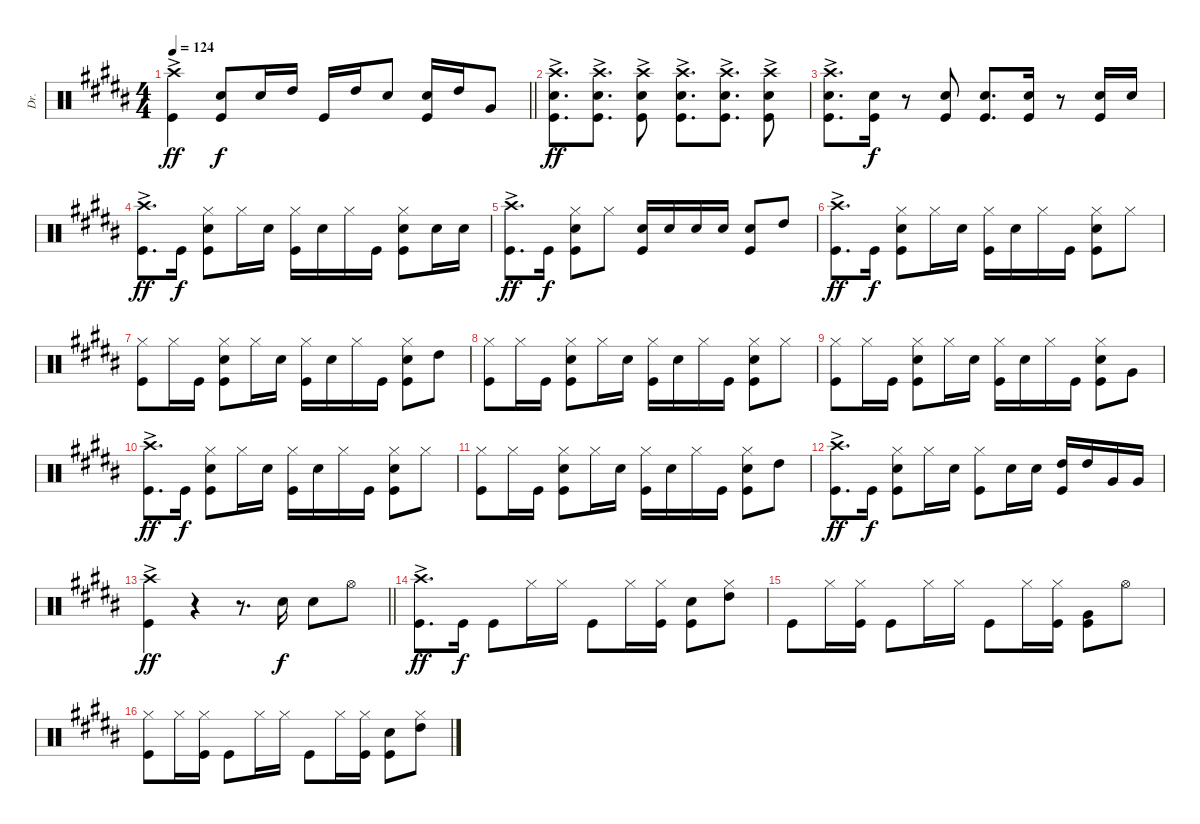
\track ("Dr." "Dr.") {instrument percussion}
\staff {score}
\articulation defaults
\ts (4 4)
\tempo 124
\clef neutral
\barLineRight lightlight
\ks b
("Crash high (hit)"{ac} "Kick (hit)"{ac}).4{dy ff} ("Snare (hit) 2" "Kick (hit)").8{dy f} "Snare (hit) 2".16 "High Tom (hit)".16 "Kick (hit)".16 "High Tom (hit)".16 "Snare (hit) 2".8 ("Kick (hit)" "Snare (hit) 2").16 "High Tom (hit)".16 "Very Low Tom (hit)".8 |
("Crash high (hit)"{ac} "Snare (hit) 2"{ac} "Kick (hit)"{ac}).8{d dy ff} ("Crash high (hit)"{ac} "Snare (hit) 2"{ac} "Kick (hit)"{ac}).8{d} ("Crash high (hit)"{ac} "Snare (hit) 2"{ac} "Kick (hit)"{ac}).8 ("Crash high (hit)"{ac} "Snare (hit) 2"{ac} "Kick (hit)"{ac}).8{d} ("Crash high (hit)"{ac} "Snare (hit) 2"{ac} "Kick (hit)"{ac}).8{d} ("Crash high (hit)"{ac} "Snare (hit) 2"{ac} "Kick (hit)"{ac}).8 |
("Crash high (hit)"{ac} "Snare (hit) 2"{ac} "Kick (hit)"{ac}).8{d} ("Snare (hit) 2" "Kick (hit)").16{dy f} r.8 ("Kick (hit)" "Snare (hit) 2").8 ("Snare (hit) 2" "Kick (hit)").8{d} ("Kick (hit)" "Snare (hit) 2").16 r.8 ("Snare (hit) 2" "Kick (hit)").16 "Snare (hit) 2".16 |
("Crash high (hit)"{ac} "Kick (hit)"{ac}).8{d dy ff} "Kick (hit)".16{dy f} ("Kick (hit)" "Snare (hit) 2" "Hi-Hat (closed)").8 "Hi-Hat (closed)".16 "Snare (hit) 2".16 ("Kick (hit)" "Hi-Hat (closed)").16 "Snare (hit) 2".16 "Hi-Hat (closed)".16 "Kick (hit)".16 ("Hi-Hat (closed)" "Kick (hit)" "Snare (hit) 2").8 "Snare (hit) 2".16 "Snare (hit) 2".16 |
("Crash high (hit)"{ac} "Kick (hit)"{ac}).8{d dy ff} "Kick (hit)".16{dy f} ("Kick (hit)" "Snare (hit) 2" "Hi-Hat (closed)").8 "Hi-Hat (closed)".8 ("Snare (hit) 2" "Kick (hit)").16 "Snare (hit) 2".16 "Snare (hit) 2".16 "Snare (hit) 2".16 ("Snare (hit) 2" "Kick (hit)").8 "High Tom (hit)".8 |
("Crash high (hit)"{ac} "Kick (hit)"{ac}).8{d dy ff} "Kick (hit)".16{dy f} ("Kick (hit)" "Snare (hit) 2" "Hi-Hat (closed)").8 "Hi-Hat (closed)".16 "Snare (hit) 2".16 ("Kick (hit)" "Hi-Hat (closed)").16 "Snare (hit) 2".16 "Hi-Hat (closed)".16 "Kick (hit)".16 ("Hi-Hat (closed)" "Kick (hit)" "Snare (hit) 2").8 "Hi-Hat (closed)".8 |
("Hi-Hat (closed)" "Kick (hit)").8 "Hi-Hat (closed)".16 "Kick (hit)".16 ("Hi-Hat (closed)" "Kick (hit)" "Snare (hit) 2").8 "Hi-Hat (closed)".16 "Snare (hit) 2".16 ("Kick (hit)" "Hi-Hat (closed)").16 "Snare (hit) 2".16 "Hi-Hat (closed)".16 "Kick (hit)".16 ("Hi-Hat (closed)" "Kick (hit)" "Snare (hit) 2").8 "High Tom (hit)".8 |
("Hi-Hat (closed)" "Kick (hit)").8 "Hi-Hat (closed)".16 "Kick (hit)".16 ("Hi-Hat (closed)" "Kick (hit)" "Snare (hit) 2").8 "Hi-Hat (closed)".16 "Snare (hit) 2".16 ("Kick (hit)" "Hi-Hat (closed)").16 "Snare (hit) 2".16 "Hi-Hat (closed)".16 "Kick (hit)".16 ("Hi-Hat (closed)" "Kick (hit)" "Snare (hit) 2").8 "Hi-Hat (closed)".8 |
("Hi-Hat (closed)" "Kick (hit)").8 "Hi-Hat (closed)".16 "Kick (hit)".16 ("Hi-Hat (closed)" "Kick (hit)" "Snare (hit) 2").8 "Hi-Hat (closed)".16 "Snare (hit) 2".16 ("Kick (hit)" "Hi-Hat (closed)").16 "Snare (hit) 2".16 "Hi-Hat (closed)".16 "Kick (hit)".16 ("Hi-Hat (closed)" "Kick (hit)" "Snare (hit) 2").8 "Very Low Tom (hit)".8 |
("Crash high (hit)"{ac} "Kick (hit)"{ac}).8{d dy ff} "Kick (hit)".16{dy f} ("Kick (hit)" "Snare (hit) 2" "Hi-Hat (closed)").8 "Hi-Hat (closed)".16 "Snare (hit) 2".16 ("Kick (hit)" "Hi-Hat (closed)").16 "Snare (hit) 2".16 "Hi-Hat (closed)".16 "Kick (hit)".16 ("Hi-Hat (closed)" "Kick (hit)" "Snare (hit) 2").8 "Hi-Hat (closed)".8 |
("Hi-Hat (closed)" "Kick (hit)").8 "Hi-Hat (closed)".16 "Kick (hit)".16 ("Hi-Hat (closed)" "Kick (hit)" "Snare (hit) 2").8 "Hi-Hat (closed)".16 "Snare (hit) 2".16 ("Kick (hit)" "Hi-Hat (closed)").16 "Snare (hit) 2".16 "Hi-Hat (closed)".16 "Kick (hit)".16 ("Hi-Hat (closed)" "Kick (hit)" "Snare (hit) 2").8 "High Tom (hit)".8 |
("Crash high (hit)"{ac} "Kick (hit)"{ac}).8{d dy ff} "Kick (hit)".16{dy f} ("Kick (hit)" "Snare (hit) 2" "Hi-Hat (closed)").8 "Hi-Hat (closed)".16 "Snare (hit) 2".16 ("Kick (hit)" "Hi-Hat (closed)").8 "Snare (hit) 2".16 "Snare (hit) 2".16 ("Kick (hit)" "High Tom (hit)").16 "High Tom (hit)".16 "Very Low Tom (hit)".16 "Very Low Tom (hit)".16 |
\barLineRight lightlight
("Crash high (hit)"{ac} "Kick (hit)"{ac}).4{dy ff} r.4 r.8{d} "Snare (hit) 2".16{dy f} "Snare (hit) 2".8 "Hi-Hat (open)".8 |
("Crash high (hit)"{ac} "Kick (hit)"{ac}).8{d dy ff} "Kick (hit)".16{dy f} "Kick (hit)".8 "Hi-Hat (closed)".16 "Hi-Hat (closed)".16 "Kick (hit)".8 "Hi-Hat (closed)".16 ("Hi-Hat (closed)" "Kick (hit)").16 ("Kick (hit)" "Snare (hit) 2").8 ("Hi-Hat (closed)" "High Tom (hit)").8 |
"Kick (hit)".8 "Hi-Hat (closed)".16 ("Hi-Hat (closed)" "Kick (hit)").16 "Kick (hit)".8 "Hi-Hat (closed)".16 "Hi-Hat (closed)".16 "Kick (hit)".8 "Hi-Hat (closed)".16 ("Hi-Hat (closed)" "Kick (hit)").16 ("Kick (hit)" "Very Low Tom (hit)").8 "Hi-Hat (open)".8 |
("Kick (hit)" "Hi-Hat (closed)").8 "Hi-Hat (closed)".16 ("Hi-Hat (closed)" "Kick (hit)").16 "Kick (hit)".8 "Hi-Hat (closed)".16 "Hi-Hat (closed)".16 "Kick (hit)".8 "Hi-Hat (closed)".16 ("Hi-Hat (closed)" "Kick (hit)").16 ("Kick (hit)" "Snare (hit) 2").8 ("Hi-Hat (closed)" "High Tom (hit)").8
